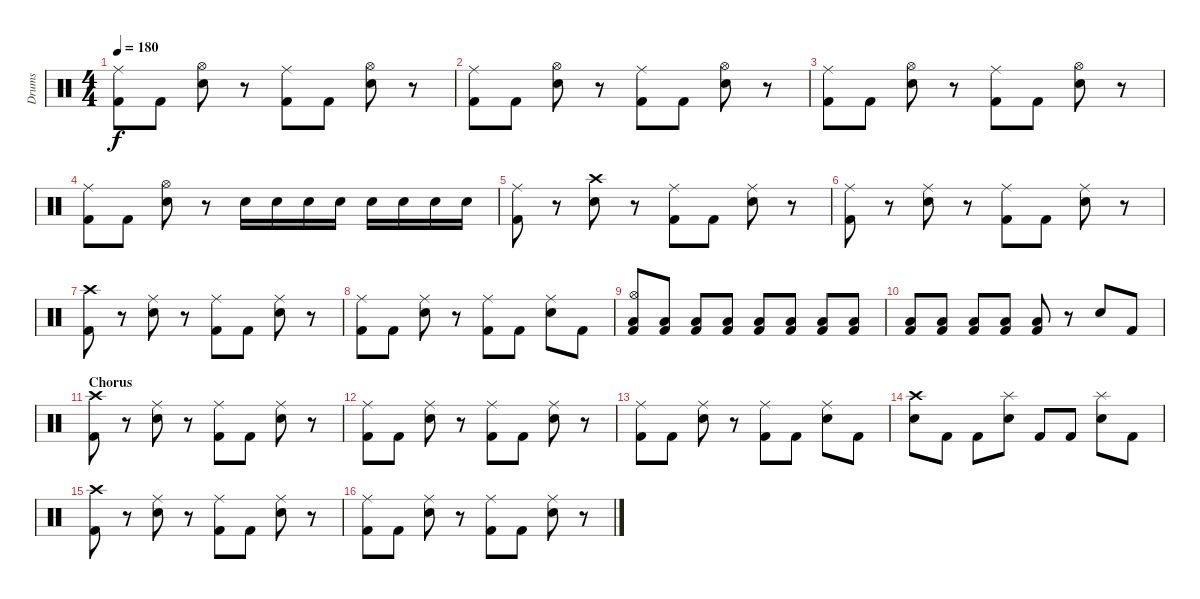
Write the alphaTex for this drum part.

\track ("Drums" "Drums") {instrument percussion}
\staff {score}
\articulation defaults
\ts (4 4)
\tempo 180
\clef neutral
\ks c
("Ride (middle)" "Kick (hit) 2").8{dy f} "Kick (hit) 2".8 ("Hi-Hat (open)" "Snare (hit) 2").8 r.8 ("Ride (middle)" "Kick (hit) 2").8 "Kick (hit) 2".8 ("Hi-Hat (open)" "Snare (hit) 2").8 r.8 |
("Ride (middle)" "Kick (hit) 2").8 "Kick (hit) 2".8 ("Hi-Hat (open)" "Snare (hit) 2").8 r.8 ("Ride (middle)" "Kick (hit) 2").8 "Kick (hit) 2".8 ("Hi-Hat (open)" "Snare (hit) 2").8 r.8 |
("Ride (middle)" "Kick (hit) 2").8 "Kick (hit) 2".8 ("Hi-Hat (open)" "Snare (hit) 2").8 r.8 ("Ride (middle)" "Kick (hit) 2").8 "Kick (hit) 2".8 ("Hi-Hat (open)" "Snare (hit) 2").8 r.8 |
("Ride (middle)" "Kick (hit) 2").8 "Kick (hit) 2".8 ("Hi-Hat (open)" "Snare (hit) 2").8 r.8 "Snare (hit) 2".16 "Snare (hit) 2".16 "Snare (hit) 2".16 "Snare (hit) 2".16 "Snare (hit) 2".16 "Snare (hit) 2".16 "Snare (hit) 2".16 "Snare (hit) 2".16 |
("Ride (middle)" "Kick (hit) 2").8 r.8 ("Crash high (hit)" "Snare (hit) 2").8 r.8 ("Ride (middle)" "Kick (hit) 2").8 "Kick (hit) 2".8 ("Ride (middle)" "Snare (hit) 2").8 r.8 |
("Ride (middle)" "Kick (hit) 2").8 r.8 ("Ride (middle)" "Snare (hit) 2").8 r.8 ("Ride (middle)" "Kick (hit) 2").8 "Kick (hit) 2".8 ("Ride (middle)" "Snare (hit) 2").8 r.8 |
("Crash high (hit)" "Kick (hit) 2").8 r.8 ("Ride (middle)" "Snare (hit) 2").8 r.8 ("Ride (middle)" "Kick (hit) 2").8 "Kick (hit) 2".8 ("Ride (middle)" "Snare (hit) 2").8 r.8 |
("Ride (middle)" "Kick (hit) 2").8 "Kick (hit) 2".8 ("Ride (middle)" "Snare (hit) 2").8 r.8 ("Ride (middle)" "Kick (hit) 2").8 "Kick (hit) 2".8 ("Ride (middle)" "Snare (hit) 2").8 "Kick (hit) 2".8 |
("Hi-Hat (open)" "Low Tom (hit)" "Kick (hit) 2").8 ("Low Tom (hit)" "Kick (hit) 2").8 ("Low Tom (hit)" "Kick (hit) 2").8 ("Low Tom (hit)" "Kick (hit) 2").8 ("Low Tom (hit)" "Kick (hit) 2").8 ("Low Tom (hit)" "Kick (hit) 2").8 ("Low Tom (hit)" "Kick (hit) 2").8 ("Low Tom (hit)" "Kick (hit) 2").8 |
("Low Tom (hit)" "Kick (hit) 2").8 ("Low Tom (hit)" "Kick (hit) 2").8 ("Low Tom (hit)" "Kick (hit) 2").8 ("Low Tom (hit)" "Kick (hit) 2").8 ("Low Tom (hit)" "Kick (hit) 2").8 r.8 "Snare (hit) 2".8 "Kick (hit) 2".8 |
\section ("" "Chorus")
("Crash high (hit)" "Kick (hit) 2").8 r.8 ("Ride (middle)" "Snare (hit) 2").8 r.8 ("Ride (middle)" "Kick (hit) 2").8 "Kick (hit) 2".8 ("Ride (middle)" "Snare (hit) 2").8 r.8 |
("Ride (middle)" "Kick (hit) 2").8 "Kick (hit) 2".8 ("Ride (middle)" "Snare (hit) 2").8 r.8 ("Ride (middle)" "Kick (hit) 2").8 "Kick (hit) 2".8 ("Ride (middle)" "Snare (hit) 2").8 r.8 |
("Ride (middle)" "Kick (hit) 2").8 "Kick (hit) 2".8 ("Ride (middle)" "Snare (hit) 2").8 r.8 ("Ride (middle)" "Kick (hit) 2").8 "Kick (hit) 2".8 ("Ride (middle)" "Snare (hit) 2").8 "Kick (hit) 2".8 |
("Crash high (hit)" "Snare (hit) 2").8 "Kick (hit) 2".8 "Kick (hit) 2".8 ("Splash (hit)" "Snare (hit) 2").8 "Kick (hit) 2".8 "Kick (hit) 2".8 ("Splash (hit)" "Snare (hit) 2").8 "Kick (hit) 2".8 |
("Crash high (hit)" "Kick (hit) 2").8 r.8 ("Ride (middle)" "Snare (hit) 2").8 r.8 ("Ride (middle)" "Kick (hit) 2").8 "Kick (hit) 2".8 ("Ride (middle)" "Snare (hit) 2").8 r.8 |
("Ride (middle)" "Kick (hit) 2").8 "Kick (hit) 2".8 ("Ride (middle)" "Snare (hit) 2").8 r.8 ("Ride (middle)" "Kick (hit) 2").8 "Kick (hit) 2".8 ("Ride (middle)" "Snare (hit) 2").8 r.8
